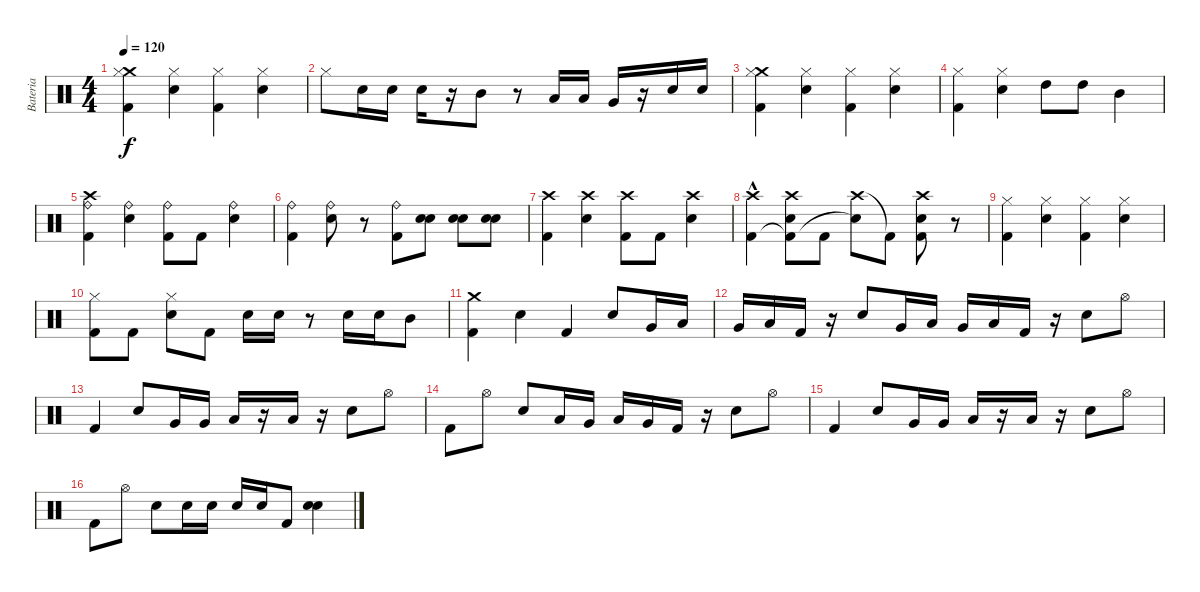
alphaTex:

\track ("Bateria" "Bateria") {instrument percussion}
\staff {score}
\articulation defaults
\ts (4 4)
\tempo 120
\clef neutral
\ks c
("Crash medium (hit)" "Hi-Hat (closed)" "Kick (hit) 2").4{dy f} ("Hi-Hat (closed)" "Electric Snare (hit)").4 ("Hi-Hat (closed)" "Kick (hit) 2").4 ("Hi-Hat (closed)" "Electric Snare (hit)").4 |
"Hi-Hat (closed)".8 "Electric Snare (hit)".16 "Electric Snare (hit)".16 "Electric Snare (hit)".16 r.16 "Mid Tom (hit)".8 r.8 "Low Tom (hit)".16 "Low Tom (hit)".16 "Very Low Tom (hit)".16 r.16 "Electric Snare (hit)".16 "Electric Snare (hit)".16 |
("Crash medium (hit)" "Hi-Hat (closed)" "Kick (hit) 2").4 ("Hi-Hat (closed)" "Electric Snare (hit)").4 ("Hi-Hat (closed)" "Kick (hit) 2").4 ("Hi-Hat (closed)" "Electric Snare (hit)").4 |
("Hi-Hat (closed)" "Kick (hit) 2").4 ("Hi-Hat (closed)" "Electric Snare (hit)").4 "High Tom (hit)".8 "High Tom (hit)".8 "Mid Tom (hit)".4 |
("Crash high (hit)" "Ride (bell)" "Kick (hit) 2").4 ("Ride (bell)" "Electric Snare (hit)").4 ("Ride (bell)" "Kick (hit) 2").8 "Kick (hit) 2".8 ("Ride (bell)" "Electric Snare (hit)").4 |
("Ride (bell)" "Kick (hit) 2").4 ("Ride (bell)" "Electric Snare (hit)").8 r.8 ("Ride (bell)" "Kick (hit) 2").8 ("Electric Snare (hit)" "Electric Snare (hit)").8 ("Electric Snare (hit)" "Electric Snare (hit)").8 ("Electric Snare (hit)" "Electric Snare (hit)").8 |
("Crash high (hit)" "Kick (hit) 2").4 ("Crash high (hit)" "Electric Snare (hit)").4 ("Crash high (hit)" "Kick (hit) 2").8 "Kick (hit) 2".8 ("Crash high (hit)" "Electric Snare (hit)").4 |
("Crash high (hit)"{hac} "Kick (hit) 2"{hac}).4 ("Crash high (hit)" "Kick (hit) 2"{t} "Electric Snare (hit)").8 "Kick (hit) 2".8 ("Crash high (hit)" "Snare (hit)"{t}).8 "Kick (hit) 2"{t}.8 ("Crash high (hit)" "Kick (hit) 2" "Electric Snare (hit)").8 r.8 |
("Hi-Hat (closed)" "Kick (hit) 2").4 ("Hi-Hat (closed)" "Electric Snare (hit)").4 ("Hi-Hat (closed)" "Kick (hit) 2").4 ("Hi-Hat (closed)" "Electric Snare (hit)").4 |
("Hi-Hat (closed)" "Kick (hit) 2").8 "Kick (hit) 2".8 ("Hi-Hat (closed)" "Electric Snare (hit)").8 "Kick (hit) 2".8 "Electric Snare (hit)".16 "Electric Snare (hit)".16 r.8 "Electric Snare (hit)".16 "Electric Snare (hit)".16 "Mid Tom (hit)".8 |
("Crash medium (hit)" "Kick (hit) 2").4 "Electric Snare (hit)".4 "Kick (hit) 2".4 "Electric Snare (hit)".8 "Very Low Tom (hit)".16 "Low Tom (hit)".16 |
"Very Low Tom (hit)".16 "Low Tom (hit)".16 "Kick (hit) 2".16 r.16 "Electric Snare (hit)".8 "Very Low Tom (hit)".16 "Low Tom (hit)".16 "Very Low Tom (hit)".16 "Low Tom (hit)".16 "Kick (hit) 2".16 r.16 "Electric Snare (hit)".8 "Hi-Hat (open)".8 |
"Kick (hit) 2".4 "Electric Snare (hit)".8 "Very Low Tom (hit)".16 "Very Low Tom (hit)".16 "Low Floor Tom (hit)".16 r.16 "Low Floor Tom (hit)".16 r.16 "Electric Snare (hit)".8 "Hi-Hat (open)".8 |
"Kick (hit) 2".8 "Hi-Hat (open)".8 "Electric Snare (hit)".8 "Low Floor Tom (hit)".16 "Very Low Tom (hit)".16 "Low Floor Tom (hit)".16 "Very Low Tom (hit)".16 "Kick (hit) 2".16 r.16 "Electric Snare (hit)".8 "Hi-Hat (open)".8 |
"Kick (hit) 2".4 "Electric Snare (hit)".8 "Very Low Tom (hit)".16 "Very Low Tom (hit)".16 "Low Floor Tom (hit)".16 r.16 "Low Floor Tom (hit)".16 r.16 "Electric Snare (hit)".8 "Hi-Hat (open)".8 |
"Kick (hit) 2".8 "Hi-Hat (open)".8 "Electric Snare (hit)".8 "Electric Snare (hit)".16 "Electric Snare (hit)".16 "Electric Snare (hit)".16 "Electric Snare (hit)".16 "Kick (hit) 2".8 ("Electric Snare (hit)" "Electric Snare (hit)").4
